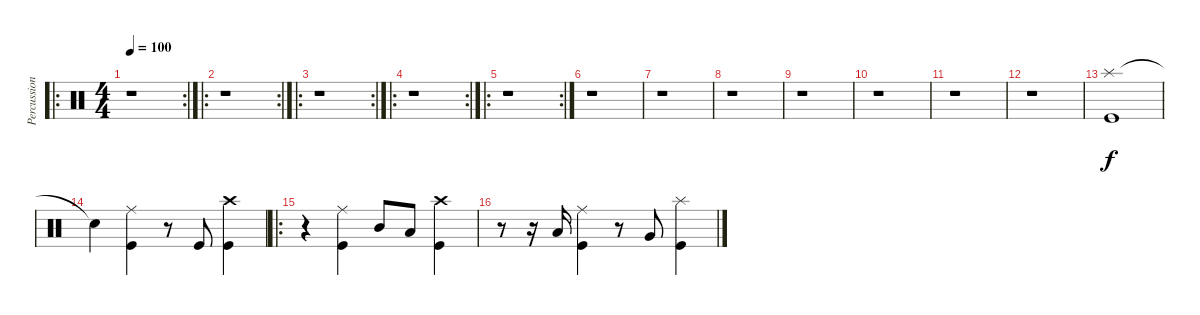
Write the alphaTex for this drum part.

\track ("Percussions" "Percussion") {instrument percussion}
\staff {score}
\articulation defaults
\ro
\rc 2
\ts (4 4)
\tempo 100
\clef neutral
\ks c
r.1{dy f} |
\ro
\rc 2
r.1 |
\ro
\rc 2
r.1 |
\ro
\rc 2
r.1 |
\ro
\rc 2
r.1 |
r.1 |
r.1 |
r.1 |
r.1 |
r.1 |
r.1 |
r.1 |
("Splash (hit)" "Kick (hit)").1 |
"Snare (hit)"{t}.4 ("Ride (middle)" "Kick (hit)").4 r.8 "Kick (hit)".8 ("Crash high (hit)" "Kick (hit)").4 |
\ro
r.4 ("Ride (middle)" "Kick (hit)").4 "Mid Tom (hit)".8 "Low Tom (hit)".8 ("Crash high (hit)" "Kick (hit)").4 |
r.8 r.16 "Low Tom (hit)".16 ("Ride (middle)" "Kick (hit)").4 r.8 "Very Low Tom (hit)".8 ("Splash (hit)" "Kick (hit)").4
